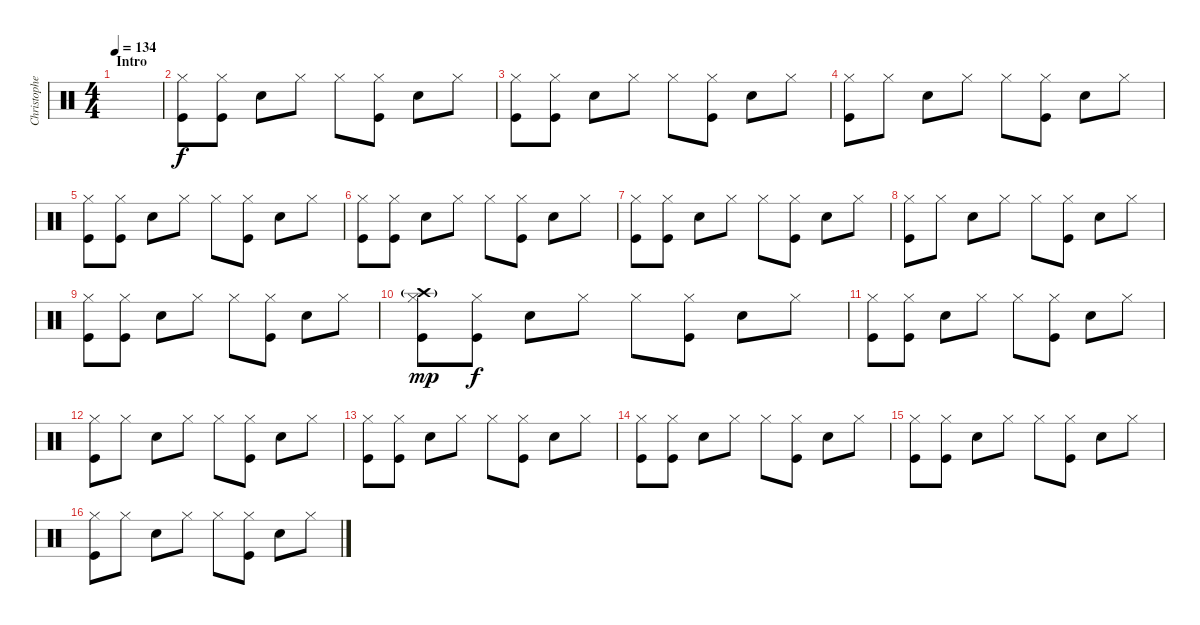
\track ("Christopher - Drums" "Christophe") {instrument percussion}
\staff {score}
\articulation defaults
\ts (4 4)
\section ("" "Intro")
\tempo 134
\clef neutral
\ks c
|
("Hi-Hat (closed)" "Kick (hit)").8 ("Hi-Hat (closed)" "Kick (hit)").8 "Snare (hit) 2".8 "Hi-Hat (closed)".8 "Hi-Hat (closed)".8 ("Hi-Hat (closed)" "Kick (hit)").8 "Snare (hit) 2".8 "Hi-Hat (closed)".8 |
("Hi-Hat (closed)" "Kick (hit)").8 ("Hi-Hat (closed)" "Kick (hit)").8 "Snare (hit) 2".8 "Hi-Hat (closed)".8 "Hi-Hat (closed)".8 ("Hi-Hat (closed)" "Kick (hit)").8 "Snare (hit) 2".8 "Hi-Hat (closed)".8 |
("Hi-Hat (closed)" "Kick (hit)").8 "Hi-Hat (closed)".8 "Snare (hit) 2".8 "Hi-Hat (closed)".8 "Hi-Hat (closed)".8 ("Hi-Hat (closed)" "Kick (hit)").8 "Snare (hit) 2".8 "Hi-Hat (closed)".8 |
("Hi-Hat (closed)" "Kick (hit)").8 ("Hi-Hat (closed)" "Kick (hit)").8 "Snare (hit) 2".8 "Hi-Hat (closed)".8 "Hi-Hat (closed)".8 ("Hi-Hat (closed)" "Kick (hit)").8 "Snare (hit) 2".8 "Hi-Hat (closed)".8 |
("Hi-Hat (closed)" "Kick (hit)").8 ("Hi-Hat (closed)" "Kick (hit)").8 "Snare (hit) 2".8 "Hi-Hat (closed)".8 "Hi-Hat (closed)".8 ("Hi-Hat (closed)" "Kick (hit)").8 "Snare (hit) 2".8 "Hi-Hat (closed)".8 |
("Hi-Hat (closed)" "Kick (hit)").8 ("Hi-Hat (closed)" "Kick (hit)").8 "Snare (hit) 2".8 "Hi-Hat (closed)".8 "Hi-Hat (closed)".8 ("Hi-Hat (closed)" "Kick (hit)").8 "Snare (hit) 2".8 "Hi-Hat (closed)".8 |
("Hi-Hat (closed)" "Kick (hit)").8 "Hi-Hat (closed)".8 "Snare (hit) 2".8 "Hi-Hat (closed)".8 "Hi-Hat (closed)".8 ("Hi-Hat (closed)" "Kick (hit)").8 "Snare (hit) 2".8 "Hi-Hat (closed)".8 |
("Hi-Hat (closed)" "Kick (hit)").8 ("Hi-Hat (closed)" "Kick (hit)").8 "Snare (hit) 2".8 "Hi-Hat (closed)".8 "Hi-Hat (closed)".8 ("Hi-Hat (closed)" "Kick (hit)").8 "Snare (hit) 2".8 "Hi-Hat (closed)".8 |
("Crash high (hit)"{g} "Hi-Hat (closed)" "Kick (hit)").8{dy mp} ("Hi-Hat (closed)" "Kick (hit)").8{dy f} "Snare (hit) 2".8 "Hi-Hat (closed)".8 "Hi-Hat (closed)".8 ("Hi-Hat (closed)" "Kick (hit)").8 "Snare (hit) 2".8 "Hi-Hat (closed)".8 |
("Hi-Hat (closed)" "Kick (hit)").8 ("Hi-Hat (closed)" "Kick (hit)").8 "Snare (hit) 2".8 "Hi-Hat (closed)".8 "Hi-Hat (closed)".8 ("Hi-Hat (closed)" "Kick (hit)").8 "Snare (hit) 2".8 "Hi-Hat (closed)".8 |
("Hi-Hat (closed)" "Kick (hit)").8 "Hi-Hat (closed)".8 "Snare (hit) 2".8 "Hi-Hat (closed)".8 "Hi-Hat (closed)".8 ("Hi-Hat (closed)" "Kick (hit)").8 "Snare (hit) 2".8 "Hi-Hat (closed)".8 |
("Hi-Hat (closed)" "Kick (hit)").8 ("Hi-Hat (closed)" "Kick (hit)").8 "Snare (hit) 2".8 "Hi-Hat (closed)".8 "Hi-Hat (closed)".8 ("Hi-Hat (closed)" "Kick (hit)").8 "Snare (hit) 2".8 "Hi-Hat (closed)".8 |
("Hi-Hat (closed)" "Kick (hit)").8 ("Hi-Hat (closed)" "Kick (hit)").8 "Snare (hit) 2".8 "Hi-Hat (closed)".8 "Hi-Hat (closed)".8 ("Hi-Hat (closed)" "Kick (hit)").8 "Snare (hit) 2".8 "Hi-Hat (closed)".8 |
("Hi-Hat (closed)" "Kick (hit)").8 ("Hi-Hat (closed)" "Kick (hit)").8 "Snare (hit) 2".8 "Hi-Hat (closed)".8 "Hi-Hat (closed)".8 ("Hi-Hat (closed)" "Kick (hit)").8 "Snare (hit) 2".8 "Hi-Hat (closed)".8 |
("Hi-Hat (closed)" "Kick (hit)").8 "Hi-Hat (closed)".8 "Snare (hit) 2".8 "Hi-Hat (closed)".8 "Hi-Hat (closed)".8 ("Hi-Hat (closed)" "Kick (hit)").8 "Snare (hit) 2".8 "Hi-Hat (closed)".8
